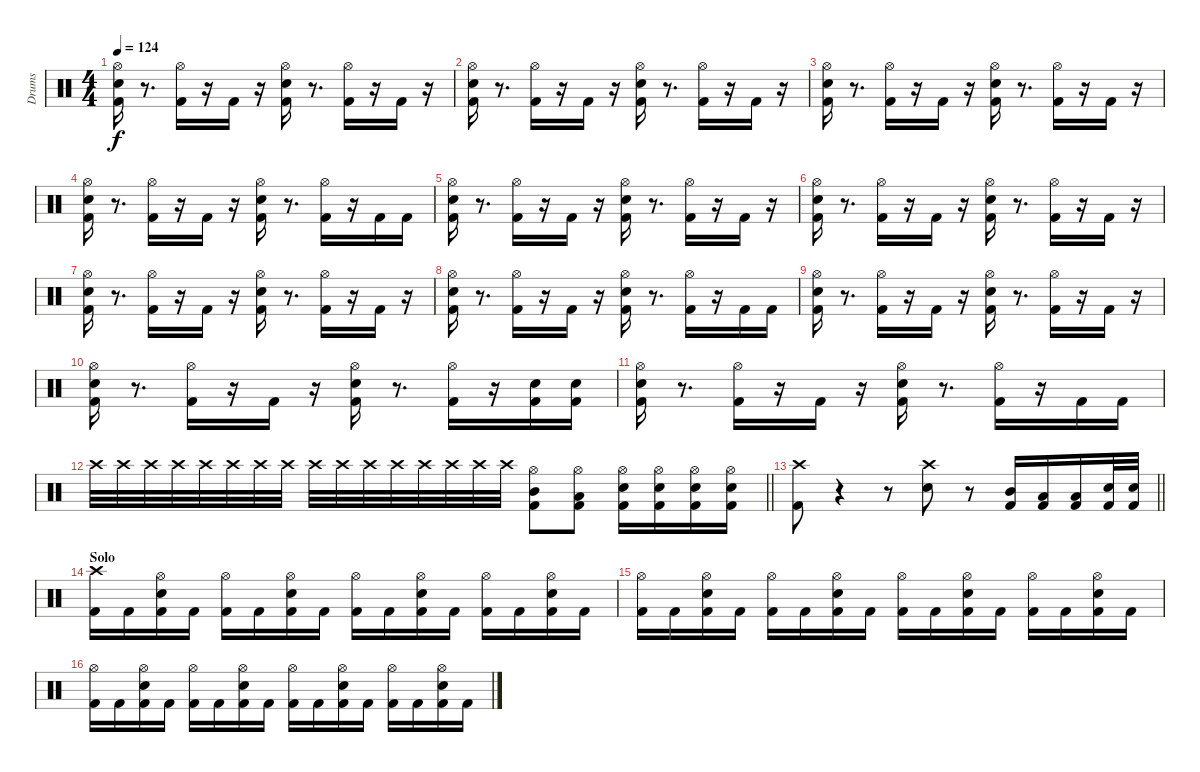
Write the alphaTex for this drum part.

\track ("Drums" "Drums") {instrument percussion}
\staff {score}
\articulation defaults
\ts (4 4)
\tempo 124
\clef neutral
\ks c
("Hi-Hat (open)" "Kick (hit) 2" "Snare (hit) 2").16{dy f} r.8{d} ("Hi-Hat (open)" "Kick (hit) 2").16 r.16 "Kick (hit) 2".16 r.16 ("Hi-Hat (open)" "Kick (hit) 2" "Snare (hit) 2").16 r.8{d} ("Hi-Hat (open)" "Kick (hit) 2").16 r.16 "Kick (hit) 2".16 r.16 |
("Hi-Hat (open)" "Kick (hit) 2" "Snare (hit) 2").16 r.8{d} ("Hi-Hat (open)" "Kick (hit) 2").16 r.16 "Kick (hit) 2".16 r.16 ("Hi-Hat (open)" "Kick (hit) 2" "Snare (hit) 2").16 r.8{d} ("Hi-Hat (open)" "Kick (hit) 2").16 r.16 "Kick (hit) 2".16 r.16 |
("Hi-Hat (open)" "Kick (hit) 2" "Snare (hit) 2").16 r.8{d} ("Hi-Hat (open)" "Kick (hit) 2").16 r.16 "Kick (hit) 2".16 r.16 ("Hi-Hat (open)" "Kick (hit) 2" "Snare (hit) 2").16 r.8{d} ("Hi-Hat (open)" "Kick (hit) 2").16 r.16 "Kick (hit) 2".16 r.16 |
("Hi-Hat (open)" "Kick (hit) 2" "Snare (hit) 2").16 r.8{d} ("Hi-Hat (open)" "Kick (hit) 2").16 r.16 "Kick (hit) 2".16 r.16 ("Hi-Hat (open)" "Kick (hit) 2" "Snare (hit) 2").16 r.8{d} ("Hi-Hat (open)" "Kick (hit) 2").16 r.16 "Kick (hit) 2".16 "Kick (hit) 2".16 |
("Hi-Hat (open)" "Kick (hit) 2" "Snare (hit) 2").16 r.8{d} ("Hi-Hat (open)" "Kick (hit) 2").16 r.16 "Kick (hit) 2".16 r.16 ("Hi-Hat (open)" "Kick (hit) 2" "Snare (hit) 2").16 r.8{d} ("Hi-Hat (open)" "Kick (hit) 2").16 r.16 "Kick (hit) 2".16 r.16 |
("Hi-Hat (open)" "Kick (hit) 2" "Snare (hit) 2").16 r.8{d} ("Hi-Hat (open)" "Kick (hit) 2").16 r.16 "Kick (hit) 2".16 r.16 ("Hi-Hat (open)" "Kick (hit) 2" "Snare (hit) 2").16 r.8{d} ("Hi-Hat (open)" "Kick (hit) 2").16 r.16 "Kick (hit) 2".16 r.16 |
("Hi-Hat (open)" "Kick (hit) 2" "Snare (hit) 2").16 r.8{d} ("Hi-Hat (open)" "Kick (hit) 2").16 r.16 "Kick (hit) 2".16 r.16 ("Hi-Hat (open)" "Kick (hit) 2" "Snare (hit) 2").16 r.8{d} ("Hi-Hat (open)" "Kick (hit) 2").16 r.16 "Kick (hit) 2".16 r.16 |
("Hi-Hat (open)" "Kick (hit) 2" "Snare (hit) 2").16 r.8{d} ("Hi-Hat (open)" "Kick (hit) 2").16 r.16 "Kick (hit) 2".16 r.16 ("Hi-Hat (open)" "Kick (hit) 2" "Snare (hit) 2").16 r.8{d} ("Hi-Hat (open)" "Kick (hit) 2").16 r.16 "Kick (hit) 2".16 "Kick (hit) 2".16 |
("Hi-Hat (open)" "Kick (hit) 2" "Snare (hit) 2").16 r.8{d} ("Hi-Hat (open)" "Kick (hit) 2").16 r.16 "Kick (hit) 2".16 r.16 ("Hi-Hat (open)" "Kick (hit) 2" "Snare (hit) 2").16 r.8{d} ("Hi-Hat (open)" "Kick (hit) 2").16 r.16 "Kick (hit) 2".16 r.16 |
("Hi-Hat (open)" "Kick (hit) 2" "Snare (hit) 2").16 r.8{d} ("Hi-Hat (open)" "Kick (hit) 2").16 r.16 "Kick (hit) 2".16 r.16 ("Hi-Hat (open)" "Kick (hit) 2" "Snare (hit) 2").16 r.8{d} ("Hi-Hat (open)" "Kick (hit) 2").16 r.16 ("Kick (hit) 2" "Snare (hit) 2").16 ("Snare (hit) 2" "Kick (hit) 2").16 |
("Hi-Hat (open)" "Kick (hit) 2" "Snare (hit) 2").16 r.8{d} ("Hi-Hat (open)" "Kick (hit) 2").16 r.16 "Kick (hit) 2".16 r.16 ("Hi-Hat (open)" "Kick (hit) 2" "Snare (hit) 2").16 r.8{d} ("Hi-Hat (open)" "Kick (hit) 2").16 r.16 "Kick (hit) 2".16 "Kick (hit) 2".16 |
\barLineRight lightlight "Crash high (hit)".32 "Crash high (hit)".32 "Crash high (hit)".32 "Crash high (hit)".32 "Crash high (hit)".32 "Crash high (hit)".32 "Crash high (hit)".32 "Crash high (hit)".32 "Crash high (hit)".32 "Crash high (hit)".32 "Crash high (hit)".32 "Crash high (hit)".32 "Crash high (hit)".32 "Crash high (hit)".32 "Crash high (hit)".32 "Crash high (hit)".32
("Mid Tom (hit)" "Kick (hit) 2" "Hi-Hat (open)").8 ("Low Tom (hit)" "Kick (hit) 2" "Hi-Hat (open)").8 ("Snare (hit) 2" "Kick (hit) 2" "Hi-Hat (open)").16 ("Hi-Hat (open)" "Kick (hit) 2" "Snare (hit) 2").16 ("Kick (hit) 2" "Snare (hit) 2" "Hi-Hat (open)").16 ("Kick (hit) 2" "Snare (hit) 2" "Hi-Hat (open)").16 |
\section ("" "")
\barLineRight lightlight
("Crash high (hit)" "Kick (hit) 2").8 r.4 r.8 ("Crash high (hit)" "Snare (hit) 2").8 r.8 ("Kick (hit) 2" "Mid Tom (hit)").16 ("Kick (hit) 2" "Low Tom (hit)").16 ("Kick (hit) 2" "Low Floor Tom (hit)").16 ("Kick (hit) 2" "Snare (hit) 2").32 ("Snare (hit) 2" "Kick (hit) 2").32 |
\section ("" "Solo")
("Kick (hit) 2" "Crash high (hit)").16 "Kick (hit) 2".16 ("Kick (hit) 2" "Hi-Hat (open)" "Snare (hit) 2").16 "Kick (hit) 2".16 ("Kick (hit) 2" "Hi-Hat (open)").16 "Kick (hit) 2".16 ("Kick (hit) 2" "Hi-Hat (open)" "Snare (hit) 2").16 "Kick (hit) 2".16 ("Kick (hit) 2" "Hi-Hat (open)").16 "Kick (hit) 2".16 ("Kick (hit) 2" "Hi-Hat (open)" "Snare (hit) 2").16 "Kick (hit) 2".16 ("Kick (hit) 2" "Hi-Hat (open)").16 "Kick (hit) 2".16 ("Kick (hit) 2" "Hi-Hat (open)" "Snare (hit) 2").16 "Kick (hit) 2".16 |
("Kick (hit) 2" "Hi-Hat (open)").16 "Kick (hit) 2".16 ("Kick (hit) 2" "Hi-Hat (open)" "Snare (hit) 2").16 "Kick (hit) 2".16 ("Kick (hit) 2" "Hi-Hat (open)").16 "Kick (hit) 2".16 ("Kick (hit) 2" "Hi-Hat (open)" "Snare (hit) 2").16 "Kick (hit) 2".16 ("Kick (hit) 2" "Hi-Hat (open)").16 "Kick (hit) 2".16 ("Kick (hit) 2" "Hi-Hat (open)" "Snare (hit) 2").16 "Kick (hit) 2".16 ("Kick (hit) 2" "Hi-Hat (open)").16 "Kick (hit) 2".16 ("Kick (hit) 2" "Hi-Hat (open)" "Snare (hit) 2").16 "Kick (hit) 2".16 |
("Kick (hit) 2" "Hi-Hat (open)").16 "Kick (hit) 2".16 ("Kick (hit) 2" "Hi-Hat (open)" "Snare (hit) 2").16 "Kick (hit) 2".16 ("Kick (hit) 2" "Hi-Hat (open)").16 "Kick (hit) 2".16 ("Kick (hit) 2" "Hi-Hat (open)" "Snare (hit) 2").16 "Kick (hit) 2".16 ("Kick (hit) 2" "Hi-Hat (open)").16 "Kick (hit) 2".16 ("Kick (hit) 2" "Hi-Hat (open)" "Snare (hit) 2").16 "Kick (hit) 2".16 ("Kick (hit) 2" "Hi-Hat (open)").16 "Kick (hit) 2".16 ("Kick (hit) 2" "Hi-Hat (open)" "Snare (hit) 2").16 "Kick (hit) 2".16
